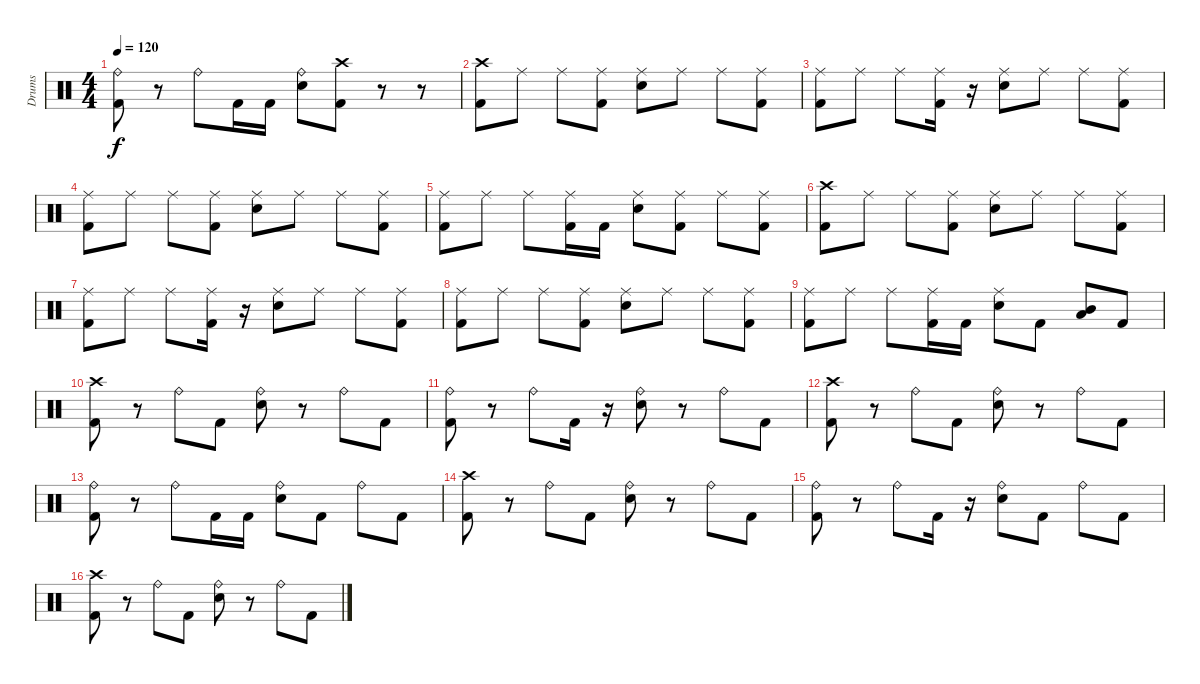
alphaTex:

\track ("Drums" "Drums") {instrument percussion}
\staff {score}
\articulation defaults
\ts (4 4)
\tempo 120
\clef neutral
\ks c
("Ride (bell)" "Kick (hit) 2").8{dy f} r.8 "Ride (bell)".8 "Kick (hit) 2".16 "Kick (hit) 2".16 ("Ride (bell)" "Electric Snare (hit)").8 ("Crash high (hit)" "Kick (hit) 2").8 r.8 r.8 |
("Crash high (hit)" "Kick (hit) 2").8 "Ride (middle)".8 "Ride (middle)".8 ("Ride (middle)" "Kick (hit) 2").8 ("Ride (middle)" "Electric Snare (hit)").8 "Ride (middle)".8 "Ride (middle)".8 ("Ride (middle)" "Kick (hit) 2").8 |
("Ride (middle)" "Kick (hit) 2").8 "Ride (middle)".8 "Ride (middle)".8 ("Ride (middle)" "Kick (hit) 2").16 r.16 ("Ride (middle)" "Electric Snare (hit)").8 "Ride (middle)".8 "Ride (middle)".8 ("Ride (middle)" "Kick (hit) 2").8 |
("Ride (middle)" "Kick (hit) 2").8 "Ride (middle)".8 "Ride (middle)".8 ("Ride (middle)" "Kick (hit) 2").8 ("Ride (middle)" "Electric Snare (hit)").8 "Ride (middle)".8 "Ride (middle)".8 ("Ride (middle)" "Kick (hit) 2").8 |
("Ride (middle)" "Kick (hit) 2").8 "Ride (middle)".8 "Ride (middle)".8 ("Ride (middle)" "Kick (hit) 2").16 "Kick (hit) 2".16 ("Ride (middle)" "Electric Snare (hit)").8 ("Ride (middle)" "Kick (hit) 2").8 "Ride (middle)".8 ("Ride (middle)" "Kick (hit) 2").8 |
("Crash high (hit)" "Kick (hit) 2").8 "Ride (middle)".8 "Ride (middle)".8 ("Ride (middle)" "Kick (hit) 2").8 ("Ride (middle)" "Electric Snare (hit)").8 "Ride (middle)".8 "Ride (middle)".8 ("Ride (middle)" "Kick (hit) 2").8 |
("Ride (middle)" "Kick (hit) 2").8 "Ride (middle)".8 "Ride (middle)".8 ("Ride (middle)" "Kick (hit) 2").16 r.16 ("Ride (middle)" "Electric Snare (hit)").8 "Ride (middle)".8 "Ride (middle)".8 ("Ride (middle)" "Kick (hit) 2").8 |
("Ride (middle)" "Kick (hit) 2").8 "Ride (middle)".8 "Ride (middle)".8 ("Ride (middle)" "Kick (hit) 2").8 ("Ride (middle)" "Electric Snare (hit)").8 "Ride (middle)".8 "Ride (middle)".8 ("Ride (middle)" "Kick (hit) 2").8 |
("Ride (middle)" "Kick (hit) 2").8 "Ride (middle)".8 "Ride (middle)".8 ("Ride (middle)" "Kick (hit) 2").16 "Kick (hit) 2".16 ("Ride (middle)" "Electric Snare (hit)").8 "Kick (hit) 2".8 ("Mid Tom (hit)" "Low Tom (hit)").8 "Kick (hit) 2".8 |
("Crash high (hit)" "Kick (hit) 2").8 r.8 "Ride (bell)".8 "Kick (hit) 2".8 ("Ride (bell)" "Electric Snare (hit)").8 r.8 "Ride (bell)".8 "Kick (hit) 2".8 |
("Ride (bell)" "Kick (hit) 2").8 r.8 "Ride (bell)".8 "Kick (hit) 2".16 r.16 ("Ride (bell)" "Electric Snare (hit)").8 r.8 "Ride (bell)".8 "Kick (hit) 2".8 |
("Crash high (hit)" "Kick (hit) 2").8 r.8 "Ride (bell)".8 "Kick (hit) 2".8 ("Ride (bell)" "Electric Snare (hit)").8 r.8 "Ride (bell)".8 "Kick (hit) 2".8 |
("Ride (bell)" "Kick (hit) 2").8 r.8 "Ride (bell)".8 "Kick (hit) 2".16 "Kick (hit) 2".16 ("Ride (bell)" "Electric Snare (hit)").8 "Kick (hit) 2".8 "Ride (bell)".8 "Kick (hit) 2".8 |
("Crash high (hit)" "Kick (hit) 2").8 r.8 "Ride (bell)".8 "Kick (hit) 2".8 ("Ride (bell)" "Electric Snare (hit)").8 r.8 "Ride (bell)".8 "Kick (hit) 2".8 |
("Ride (bell)" "Kick (hit) 2").8 r.8 "Ride (bell)".8 "Kick (hit) 2".16 r.16 ("Ride (bell)" "Electric Snare (hit)").8 "Kick (hit) 2".8 "Ride (bell)".8 "Kick (hit) 2".8 |
("Crash high (hit)" "Kick (hit) 2").8 r.8 "Ride (bell)".8 "Kick (hit) 2".8 ("Ride (bell)" "Electric Snare (hit)").8 r.8 "Ride (bell)".8 "Kick (hit) 2".8
